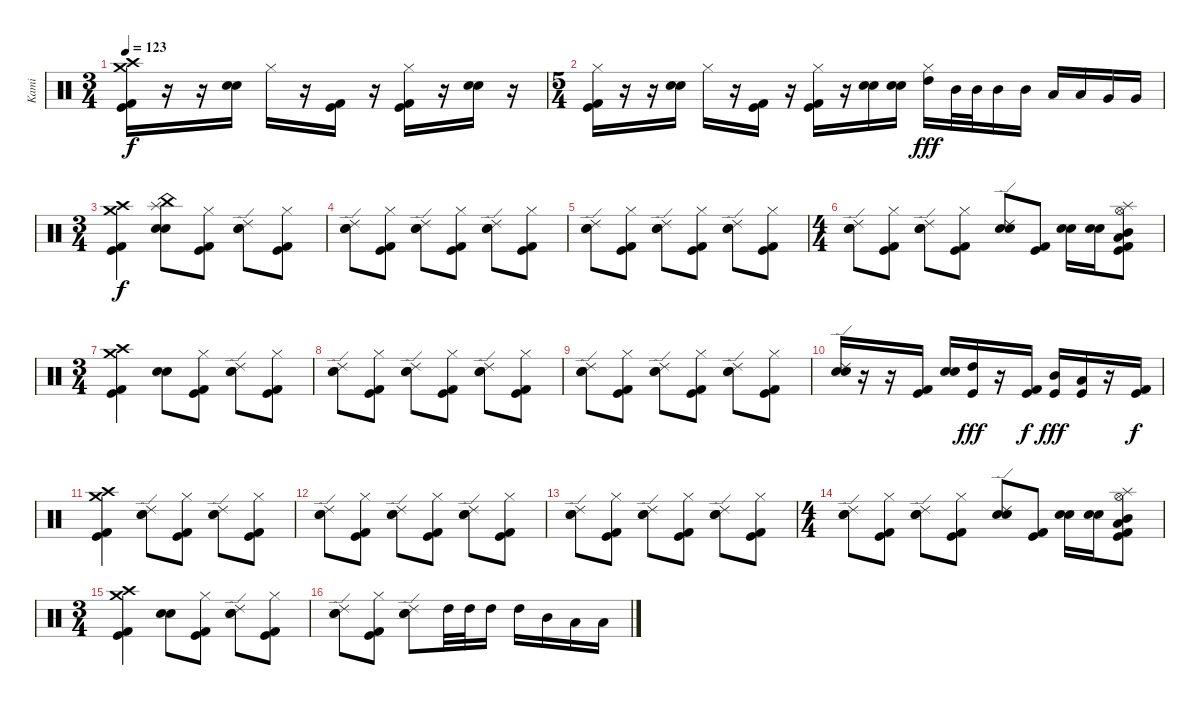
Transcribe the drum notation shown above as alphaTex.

\track ("Kami" "Kami") {instrument percussion}
\staff {score}
\articulation defaults
\ts (3 4)
\tempo 123
\clef neutral
\ks c
("Kick (hit)" "Kick (hit) 2" "Crash high (hit)" "Crash medium (hit)").16{dy f} r.16 r.16 ("Electric Snare (hit)" "Snare (hit) 2").16 "Hi-Hat (closed)".16 r.16 ("Kick (hit)" "Kick (hit) 2").16 r.16 ("Kick (hit)" "Kick (hit) 2" "Hi-Hat (closed)").16 r.16 ("Electric Snare (hit)" "Snare (hit) 2").16 r.16 |
\ts (5 4)
("Kick (hit)" "Kick (hit) 2" "Hi-Hat (closed)").16 r.16 r.16 ("Electric Snare (hit)" "Snare (hit) 2").16 "Hi-Hat (closed)".16 r.16 ("Kick (hit)" "Kick (hit) 2").16 r.16 ("Kick (hit)" "Kick (hit) 2" "Hi-Hat (closed)").16 r.16 ("Electric Snare (hit)" "Snare (hit) 2").16 ("Electric Snare (hit)" "Snare (hit) 2").16 ("High Tom (hit)" "Hi-Hat (closed)").16{dy fff} "Mid Tom (hit)".32 "Mid Tom (hit)".32 "Mid Tom (hit)".16 "Mid Tom (hit)".16 "Low Tom (hit)".16 "Low Tom (hit)".16 "Very Low Tom (hit)".16 "Very Low Tom (hit)".16 |
\ts (3 4)
("Kick (hit)" "Kick (hit) 2" "Crash medium (hit)" "Crash high (hit)").4{dy f} ("Electric Snare (hit)" "Snare (hit) 2" "China (hit)" "Splash (hit)").8 ("Kick (hit)" "Kick (hit) 2" "Hi-Hat (closed)").8 ("Snare (hit) 2" "Electric Snare (hit)" "Ride (edge) 2").8 ("Kick (hit)" "Kick (hit) 2" "Hi-Hat (closed)").8 |
("Snare (hit) 2" "Electric Snare (hit)" "Ride (edge) 2").8 ("Kick (hit)" "Kick (hit) 2" "Hi-Hat (closed)").8 ("Snare (hit) 2" "Electric Snare (hit)" "Ride (edge) 2").8 ("Kick (hit)" "Kick (hit) 2" "Hi-Hat (closed)").8 ("Snare (hit) 2" "Electric Snare (hit)" "Ride (edge) 2").8 ("Kick (hit)" "Kick (hit) 2" "Hi-Hat (closed)").8 |
("Snare (hit) 2" "Electric Snare (hit)" "Ride (edge) 2").8 ("Kick (hit)" "Kick (hit) 2" "Hi-Hat (closed)").8 ("Snare (hit) 2" "Electric Snare (hit)" "Ride (edge) 2").8 ("Kick (hit)" "Kick (hit) 2" "Hi-Hat (closed)").8 ("Snare (hit) 2" "Electric Snare (hit)" "Ride (edge) 2").8 ("Kick (hit)" "Kick (hit) 2" "Hi-Hat (closed)").8 |
\ts (4 4)
("Snare (hit) 2" "Electric Snare (hit)" "Ride (edge) 2").8 ("Kick (hit)" "Kick (hit) 2" "Hi-Hat (closed)").8 ("Snare (hit) 2" "Electric Snare (hit)" "Ride (edge) 2").8 ("Kick (hit)" "Kick (hit) 2" "Hi-Hat (closed)").8 ("Snare (hit) 2" "Electric Snare (hit)" "Ride (edge) 2").8 ("Kick (hit)" "Kick (hit) 2").8 ("Electric Snare (hit)" "Snare (hit) 2").16 ("Electric Snare (hit)" "Snare (hit) 2").16 ("Kick (hit)" "Kick (hit) 2" "Hi-Hat (open)" "Low Tom (hit)" "Mid Tom (hit)" "Splash (hit)").8 |
\ts (3 4)
("Kick (hit)" "Kick (hit) 2" "Crash medium (hit)" "Crash high (hit)").4 ("Electric Snare (hit)" "Snare (hit) 2").8 ("Kick (hit)" "Kick (hit) 2" "Hi-Hat (closed)").8 ("Snare (hit) 2" "Electric Snare (hit)" "Ride (edge) 2").8 ("Kick (hit)" "Kick (hit) 2" "Hi-Hat (closed)").8 |
("Snare (hit) 2" "Electric Snare (hit)" "Ride (edge) 2").8 ("Kick (hit)" "Kick (hit) 2" "Hi-Hat (closed)").8 ("Snare (hit) 2" "Electric Snare (hit)" "Ride (edge) 2").8 ("Kick (hit)" "Kick (hit) 2" "Hi-Hat (closed)").8 ("Snare (hit) 2" "Electric Snare (hit)" "Ride (edge) 2").8 ("Kick (hit)" "Kick (hit) 2" "Hi-Hat (closed)").8 |
("Snare (hit) 2" "Electric Snare (hit)" "Ride (edge) 2").8 ("Kick (hit)" "Kick (hit) 2" "Hi-Hat (closed)").8 ("Snare (hit) 2" "Electric Snare (hit)" "Ride (edge) 2").8 ("Kick (hit)" "Kick (hit) 2" "Hi-Hat (closed)").8 ("Snare (hit) 2" "Electric Snare (hit)" "Ride (edge) 2").8 ("Kick (hit)" "Kick (hit) 2" "Hi-Hat (closed)").8 |
("Snare (hit) 2" "Electric Snare (hit)" "Ride (edge) 2").16 r.16 r.16 ("Kick (hit)" "Kick (hit) 2").16 ("Electric Snare (hit)" "Snare (hit) 2").16 ("Kick (hit)" "High Tom (hit)").16{dy fff} r.16 ("Kick (hit)" "Kick (hit) 2").16{dy f} ("Kick (hit)" "Mid Tom (hit)").16{dy fff} ("Kick (hit)" "Low Tom (hit)").16 r.16 ("Kick (hit)" "Kick (hit) 2").16{dy f} |
("Kick (hit)" "Kick (hit) 2" "Crash medium (hit)" "Crash high (hit)").4 ("Electric Snare (hit)" "Snare (hit) 2" "Ride (edge) 2").8 ("Kick (hit)" "Kick (hit) 2" "Hi-Hat (closed)").8 ("Snare (hit) 2" "Electric Snare (hit)" "Ride (edge) 2").8 ("Kick (hit)" "Kick (hit) 2" "Hi-Hat (closed)").8 |
("Snare (hit) 2" "Electric Snare (hit)" "Ride (edge) 2").8 ("Kick (hit)" "Kick (hit) 2" "Hi-Hat (closed)").8 ("Snare (hit) 2" "Electric Snare (hit)" "Ride (edge) 2").8 ("Kick (hit)" "Kick (hit) 2" "Hi-Hat (closed)").8 ("Snare (hit) 2" "Electric Snare (hit)" "Ride (edge) 2").8 ("Kick (hit)" "Kick (hit) 2" "Hi-Hat (closed)").8 |
("Snare (hit) 2" "Electric Snare (hit)" "Ride (edge) 2").8 ("Kick (hit)" "Kick (hit) 2" "Hi-Hat (closed)").8 ("Snare (hit) 2" "Electric Snare (hit)" "Ride (edge) 2").8 ("Kick (hit)" "Kick (hit) 2" "Hi-Hat (closed)").8 ("Snare (hit) 2" "Electric Snare (hit)" "Ride (edge) 2").8 ("Kick (hit)" "Kick (hit) 2" "Hi-Hat (closed)").8 |
\ts (4 4)
("Snare (hit) 2" "Electric Snare (hit)" "Ride (edge) 2").8 ("Kick (hit)" "Kick (hit) 2" "Hi-Hat (closed)").8 ("Snare (hit) 2" "Electric Snare (hit)" "Ride (edge) 2").8 ("Kick (hit)" "Kick (hit) 2" "Hi-Hat (closed)").8 ("Snare (hit) 2" "Electric Snare (hit)" "Ride (edge) 2").8 ("Kick (hit)" "Kick (hit) 2").8 ("Electric Snare (hit)" "Snare (hit) 2").16 ("Electric Snare (hit)" "Snare (hit) 2").16 ("Kick (hit)" "Kick (hit) 2" "Hi-Hat (open)" "Low Tom (hit)" "Mid Tom (hit)" "Splash (hit)").8 |
\ts (3 4)
("Kick (hit)" "Kick (hit) 2" "Crash medium (hit)" "Crash high (hit)").4 ("Electric Snare (hit)" "Snare (hit) 2").8 ("Kick (hit)" "Kick (hit) 2" "Hi-Hat (closed)").8 ("Snare (hit) 2" "Electric Snare (hit)" "Ride (edge) 2").8 ("Kick (hit)" "Kick (hit) 2" "Hi-Hat (closed)").8 |
("Snare (hit) 2" "Electric Snare (hit)" "Ride (edge) 2").8 ("Kick (hit)" "Kick (hit) 2" "Hi-Hat (closed)").8 ("Snare (hit) 2" "Electric Snare (hit)" "Ride (edge) 2").8 "High Tom (hit)".32 "High Tom (hit)".32 "High Tom (hit)".16 "High Tom (hit)".16 "Mid Tom (hit)".16 "Low Tom (hit)".16 "Low Tom (hit)".16
